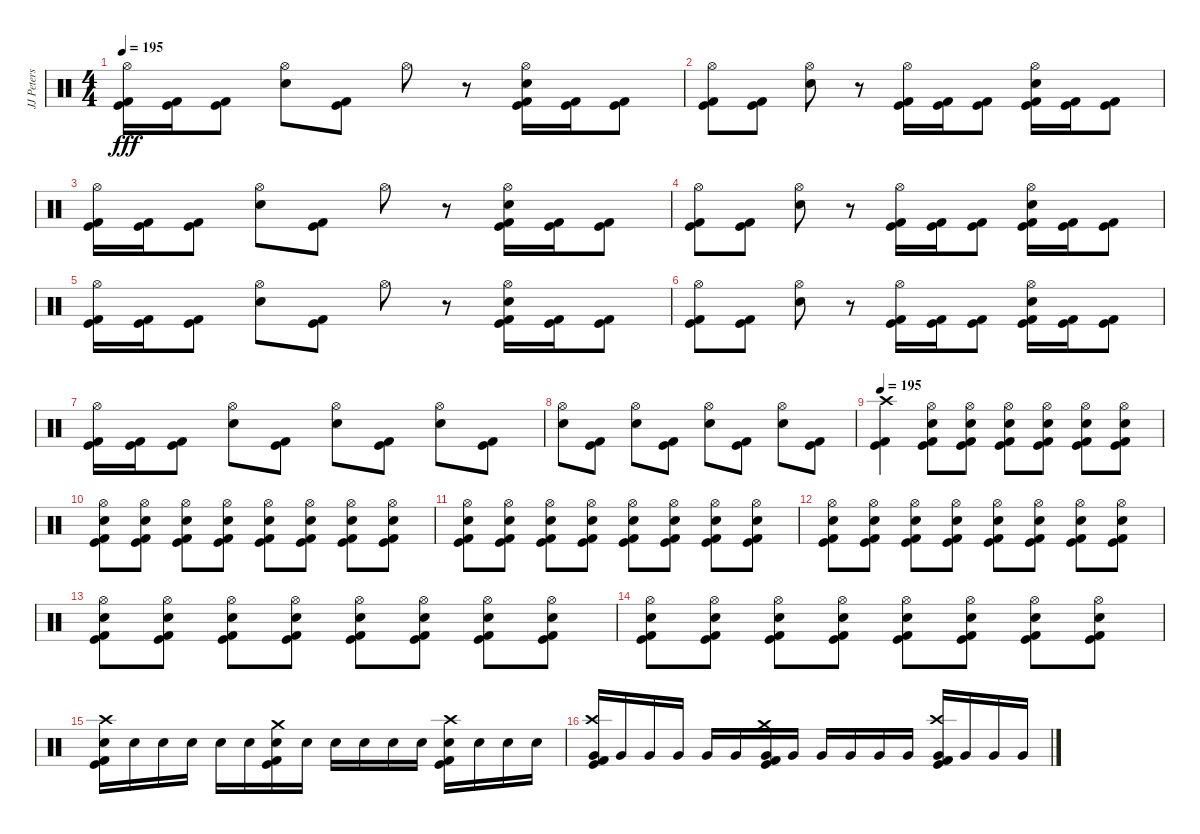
\track ("JJ Peters" "JJ Peters") {instrument percussion}
\staff {score}
\articulation defaults
\ts (4 4)
\tempo 195
\clef neutral
\ks c
("Hi-Hat (open)" "Kick (hit)" "Kick (hit) 2").16{dy fff} ("Kick (hit)" "Kick (hit) 2").16 ("Kick (hit)" "Kick (hit) 2").8 ("Hi-Hat (open)" "Electric Snare (hit)").8 ("Kick (hit)" "Kick (hit) 2").8 "Hi-Hat (open)".8 r.8 ("Hi-Hat (open)" "Electric Snare (hit)" "Kick (hit)" "Kick (hit) 2").16 ("Kick (hit)" "Kick (hit) 2").16 ("Kick (hit)" "Kick (hit) 2").8 |
("Hi-Hat (open)" "Kick (hit)" "Kick (hit) 2").8 ("Kick (hit)" "Kick (hit) 2").8 ("Hi-Hat (open)" "Electric Snare (hit)").8 r.8 ("Hi-Hat (open)" "Kick (hit)" "Kick (hit) 2").16 ("Kick (hit)" "Kick (hit) 2").16 ("Kick (hit)" "Kick (hit) 2").8 ("Hi-Hat (open)" "Electric Snare (hit)" "Kick (hit)" "Kick (hit) 2").16 ("Kick (hit)" "Kick (hit) 2").16 ("Kick (hit)" "Kick (hit) 2").8 |
("Hi-Hat (open)" "Kick (hit)" "Kick (hit) 2").16 ("Kick (hit)" "Kick (hit) 2").16 ("Kick (hit)" "Kick (hit) 2").8 ("Hi-Hat (open)" "Electric Snare (hit)").8 ("Kick (hit)" "Kick (hit) 2").8 "Hi-Hat (open)".8 r.8 ("Hi-Hat (open)" "Electric Snare (hit)" "Kick (hit)" "Kick (hit) 2").16 ("Kick (hit)" "Kick (hit) 2").16 ("Kick (hit)" "Kick (hit) 2").8 |
("Hi-Hat (open)" "Kick (hit)" "Kick (hit) 2").8 ("Kick (hit)" "Kick (hit) 2").8 ("Hi-Hat (open)" "Electric Snare (hit)").8 r.8 ("Hi-Hat (open)" "Kick (hit)" "Kick (hit) 2").16 ("Kick (hit)" "Kick (hit) 2").16 ("Kick (hit)" "Kick (hit) 2").8 ("Hi-Hat (open)" "Electric Snare (hit)" "Kick (hit)" "Kick (hit) 2").16 ("Kick (hit)" "Kick (hit) 2").16 ("Kick (hit)" "Kick (hit) 2").8 |
("Hi-Hat (open)" "Kick (hit)" "Kick (hit) 2").16 ("Kick (hit)" "Kick (hit) 2").16 ("Kick (hit)" "Kick (hit) 2").8 ("Hi-Hat (open)" "Electric Snare (hit)").8 ("Kick (hit)" "Kick (hit) 2").8 "Hi-Hat (open)".8 r.8 ("Hi-Hat (open)" "Electric Snare (hit)" "Kick (hit)" "Kick (hit) 2").16 ("Kick (hit)" "Kick (hit) 2").16 ("Kick (hit)" "Kick (hit) 2").8 |
("Hi-Hat (open)" "Kick (hit)" "Kick (hit) 2").8 ("Kick (hit)" "Kick (hit) 2").8 ("Hi-Hat (open)" "Electric Snare (hit)").8 r.8 ("Hi-Hat (open)" "Kick (hit)" "Kick (hit) 2").16 ("Kick (hit)" "Kick (hit) 2").16 ("Kick (hit)" "Kick (hit) 2").8 ("Hi-Hat (open)" "Electric Snare (hit)" "Kick (hit)" "Kick (hit) 2").16 ("Kick (hit)" "Kick (hit) 2").16 ("Kick (hit)" "Kick (hit) 2").8 |
("Hi-Hat (open)" "Kick (hit)" "Kick (hit) 2").16 ("Kick (hit)" "Kick (hit) 2").16 ("Kick (hit)" "Kick (hit) 2").8 ("Hi-Hat (open)" "Electric Snare (hit)").8 ("Kick (hit)" "Kick (hit) 2").8 ("Hi-Hat (open)" "Electric Snare (hit)").8 ("Kick (hit)" "Kick (hit) 2").8 ("Hi-Hat (open)" "Electric Snare (hit)").8 ("Kick (hit)" "Kick (hit) 2").8 |
("Hi-Hat (open)" "Electric Snare (hit)").8 ("Kick (hit)" "Kick (hit) 2").8 ("Hi-Hat (open)" "Electric Snare (hit)").8 ("Kick (hit)" "Kick (hit) 2").8 ("Hi-Hat (open)" "Electric Snare (hit)").8 ("Kick (hit)" "Kick (hit) 2").8 ("Hi-Hat (open)" "Electric Snare (hit)").8 ("Kick (hit)" "Kick (hit) 2").8 |
\tempo 195
("Crash high (hit)" "Kick (hit)" "Kick (hit) 2").4 ("Hi-Hat (open)" "Electric Snare (hit)" "Kick (hit)" "Kick (hit) 2").8 ("Hi-Hat (open)" "Electric Snare (hit)" "Kick (hit)" "Kick (hit) 2").8 ("Hi-Hat (open)" "Electric Snare (hit)" "Kick (hit)" "Kick (hit) 2").8 ("Hi-Hat (open)" "Electric Snare (hit)" "Kick (hit)" "Kick (hit) 2").8 ("Hi-Hat (open)" "Electric Snare (hit)" "Kick (hit)" "Kick (hit) 2").8 ("Hi-Hat (open)" "Electric Snare (hit)" "Kick (hit)" "Kick (hit) 2").8 |
("Hi-Hat (open)" "Electric Snare (hit)" "Kick (hit)" "Kick (hit) 2").8 ("Hi-Hat (open)" "Electric Snare (hit)" "Kick (hit)" "Kick (hit) 2").8 ("Hi-Hat (open)" "Electric Snare (hit)" "Kick (hit)" "Kick (hit) 2").8 ("Hi-Hat (open)" "Electric Snare (hit)" "Kick (hit)" "Kick (hit) 2").8 ("Hi-Hat (open)" "Electric Snare (hit)" "Kick (hit)" "Kick (hit) 2").8 ("Hi-Hat (open)" "Electric Snare (hit)" "Kick (hit)" "Kick (hit) 2").8 ("Hi-Hat (open)" "Electric Snare (hit)" "Kick (hit)" "Kick (hit) 2").8 ("Hi-Hat (open)" "Electric Snare (hit)" "Kick (hit)" "Kick (hit) 2").8 |
("Hi-Hat (open)" "Electric Snare (hit)" "Kick (hit)" "Kick (hit) 2").8 ("Hi-Hat (open)" "Electric Snare (hit)" "Kick (hit)" "Kick (hit) 2").8 ("Hi-Hat (open)" "Electric Snare (hit)" "Kick (hit)" "Kick (hit) 2").8 ("Hi-Hat (open)" "Electric Snare (hit)" "Kick (hit)" "Kick (hit) 2").8 ("Hi-Hat (open)" "Electric Snare (hit)" "Kick (hit)" "Kick (hit) 2").8 ("Hi-Hat (open)" "Electric Snare (hit)" "Kick (hit)" "Kick (hit) 2").8 ("Hi-Hat (open)" "Electric Snare (hit)" "Kick (hit)" "Kick (hit) 2").8 ("Hi-Hat (open)" "Electric Snare (hit)" "Kick (hit)" "Kick (hit) 2").8 |
("Hi-Hat (open)" "Electric Snare (hit)" "Kick (hit)" "Kick (hit) 2").8 ("Hi-Hat (open)" "Electric Snare (hit)" "Kick (hit)" "Kick (hit) 2").8 ("Hi-Hat (open)" "Electric Snare (hit)" "Kick (hit)" "Kick (hit) 2").8 ("Hi-Hat (open)" "Electric Snare (hit)" "Kick (hit)" "Kick (hit) 2").8 ("Hi-Hat (open)" "Electric Snare (hit)" "Kick (hit)" "Kick (hit) 2").8 ("Hi-Hat (open)" "Electric Snare (hit)" "Kick (hit)" "Kick (hit) 2").8 ("Hi-Hat (open)" "Electric Snare (hit)" "Kick (hit)" "Kick (hit) 2").8 ("Hi-Hat (open)" "Electric Snare (hit)" "Kick (hit)" "Kick (hit) 2").8 |
("Hi-Hat (open)" "Electric Snare (hit)" "Kick (hit)" "Kick (hit) 2").8 ("Hi-Hat (open)" "Electric Snare (hit)" "Kick (hit)" "Kick (hit) 2").8 ("Hi-Hat (open)" "Electric Snare (hit)" "Kick (hit)" "Kick (hit) 2").8 ("Hi-Hat (open)" "Electric Snare (hit)" "Kick (hit)" "Kick (hit) 2").8 ("Hi-Hat (open)" "Electric Snare (hit)" "Kick (hit)" "Kick (hit) 2").8 ("Hi-Hat (open)" "Electric Snare (hit)" "Kick (hit)" "Kick (hit) 2").8 ("Hi-Hat (open)" "Electric Snare (hit)" "Kick (hit)" "Kick (hit) 2").8 ("Hi-Hat (open)" "Electric Snare (hit)" "Kick (hit)" "Kick (hit) 2").8 |
("Hi-Hat (open)" "Electric Snare (hit)" "Kick (hit)" "Kick (hit) 2").8 ("Hi-Hat (open)" "Electric Snare (hit)" "Kick (hit)" "Kick (hit) 2").8 ("Hi-Hat (open)" "Electric Snare (hit)" "Kick (hit)" "Kick (hit) 2").8 ("Hi-Hat (open)" "Electric Snare (hit)" "Kick (hit)" "Kick (hit) 2").8 ("Hi-Hat (open)" "Electric Snare (hit)" "Kick (hit)" "Kick (hit) 2").8 ("Hi-Hat (open)" "Electric Snare (hit)" "Kick (hit)" "Kick (hit) 2").8 ("Hi-Hat (open)" "Electric Snare (hit)" "Kick (hit)" "Kick (hit) 2").8 ("Hi-Hat (open)" "Electric Snare (hit)" "Kick (hit)" "Kick (hit) 2").8 |
("Crash high (hit)" "Electric Snare (hit)" "Kick (hit)" "Kick (hit) 2").16 "Electric Snare (hit)".16 "Electric Snare (hit)".16 "Electric Snare (hit)".16 "Electric Snare (hit)".16 "Electric Snare (hit)".16 ("Crash medium (hit)" "Electric Snare (hit)" "Kick (hit)" "Kick (hit) 2").16 "Electric Snare (hit)".16 "Electric Snare (hit)".16 "Electric Snare (hit)".16 "Electric Snare (hit)".16 "Electric Snare (hit)".16 ("Crash high (hit)" "Electric Snare (hit)" "Kick (hit)" "Kick (hit) 2").16 "Electric Snare (hit)".16 "Electric Snare (hit)".16 "Electric Snare (hit)".16 |
("Crash high (hit)" "Very Low Tom (hit)" "Kick (hit)" "Kick (hit) 2").16 "Very Low Tom (hit)".16 "Very Low Tom (hit)".16 "Very Low Tom (hit)".16 "Very Low Tom (hit)".16 "Very Low Tom (hit)".16 ("Crash medium (hit)" "Very Low Tom (hit)" "Kick (hit)" "Kick (hit) 2").16 "Very Low Tom (hit)".16 "Very Low Tom (hit)".16 "Very Low Tom (hit)".16 "Very Low Tom (hit)".16 "Very Low Tom (hit)".16 ("Crash high (hit)" "Very Low Tom (hit)" "Kick (hit)" "Kick (hit) 2").16 "Very Low Tom (hit)".16 "Very Low Tom (hit)".16 "Very Low Tom (hit)".16
